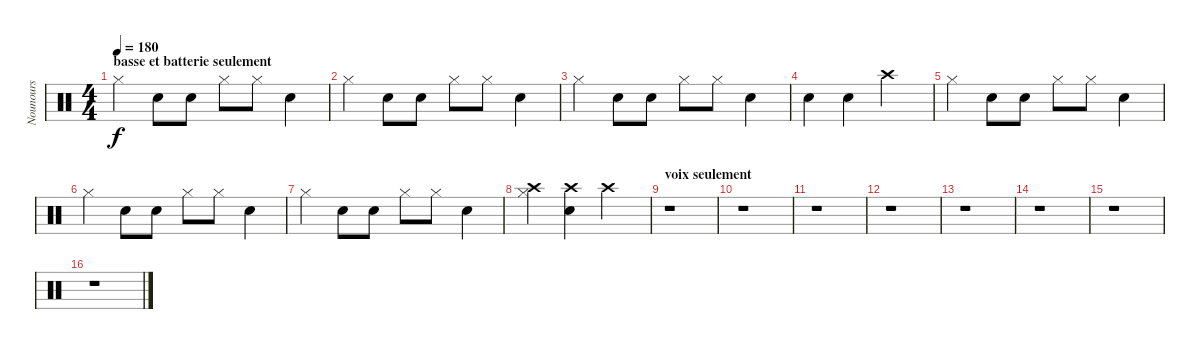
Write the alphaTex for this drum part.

\track ("Nounours" "Nounours") {instrument percussion}
\staff {score}
\articulation defaults
\ts (4 4)
\section ("" "basse et batterie seulement")
\tempo 180
\clef neutral
\ks c "Hi-Hat (closed)".4{dy f} "Snare (hit) 2".8 "Snare (hit) 2".8 "Hi-Hat (closed)".8 "Hi-Hat (closed)".8 "Snare (hit) 2".4
|
"Hi-Hat (closed)".4 "Snare (hit) 2".8 "Snare (hit) 2".8 "Hi-Hat (closed)".8 "Hi-Hat (closed)".8 "Snare (hit) 2".4 |
"Hi-Hat (closed)".4 "Snare (hit) 2".8 "Snare (hit) 2".8 "Hi-Hat (closed)".8 "Hi-Hat (closed)".8 "Snare (hit) 2".4 |
"Snare (hit) 2".4 "Snare (hit) 2".4 "Crash high (hit)".2 |
"Hi-Hat (closed)".4 "Snare (hit) 2".8 "Snare (hit) 2".8 "Hi-Hat (closed)".8 "Hi-Hat (closed)".8 "Snare (hit) 2".4 |
"Hi-Hat (closed)".4 "Snare (hit) 2".8 "Snare (hit) 2".8 "Hi-Hat (closed)".8 "Hi-Hat (closed)".8 "Snare (hit) 2".4 |
"Hi-Hat (closed)".4 "Snare (hit) 2".8 "Snare (hit) 2".8 "Hi-Hat (closed)".8 "Hi-Hat (closed)".8 "Snare (hit) 2".4 |
("Crash high (hit)" "Hi-Hat (closed)").4 ("Crash high (hit)" "Snare (hit) 2").4 "Crash high (hit)".2 |
\section ("" "voix seulement")
r.1 |
r.1 |
r.1 |
r.1 |
r.1 |
r.1 |
r.1 |
r.1
